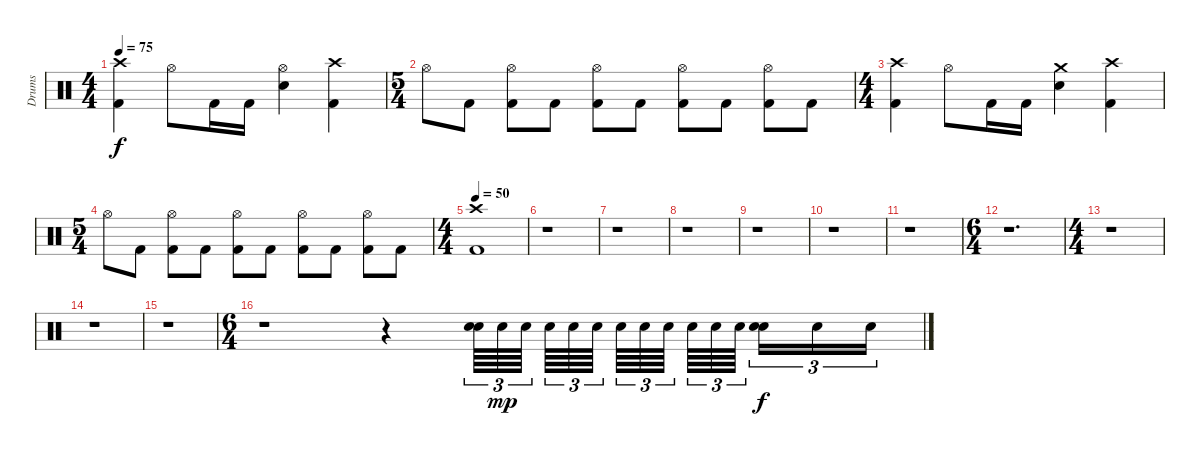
\track ("Drums" "Drums") {instrument percussion}
\staff {score}
\articulation defaults
\ts (4 4)
\tempo 75
\clef neutral
\ks c
("Crash high (hit)" "Kick (hit) 2").4{dy f} "Hi-Hat (open)".8 "Kick (hit) 2".16 "Kick (hit) 2".16 ("Hi-Hat (open)" "Electric Snare (hit)").4 ("Crash high (hit)" "Kick (hit) 2").4 |
\ts (5 4)
"Hi-Hat (open)".8 "Kick (hit) 2".8 ("Hi-Hat (open)" "Kick (hit) 2").8 "Kick (hit) 2".8 ("Hi-Hat (open)" "Kick (hit) 2").8 "Kick (hit) 2".8 ("Hi-Hat (open)" "Kick (hit) 2").8 "Kick (hit) 2".8 ("Hi-Hat (open)" "Kick (hit) 2").8 "Kick (hit) 2".8 |
\ts (4 4)
("Crash high (hit)" "Kick (hit) 2").4 "Hi-Hat (open)".8 "Kick (hit) 2".16 "Kick (hit) 2".16 ("Crash medium (hit)" "Electric Snare (hit)").4 ("Crash high (hit)" "Kick (hit) 2").4 |
\ts (5 4)
"Hi-Hat (open)".8 "Kick (hit) 2".8 ("Hi-Hat (open)" "Kick (hit) 2").8 "Kick (hit) 2".8 ("Hi-Hat (open)" "Kick (hit) 2").8 "Kick (hit) 2".8 ("Hi-Hat (open)" "Kick (hit) 2").8 "Kick (hit) 2".8 ("Hi-Hat (open)" "Kick (hit) 2").8 "Kick (hit) 2".8 |
\ts (4 4)
\tempo 50
("Crash high (hit)" "Kick (hit) 2").1 |
r.1 |
r.1 |
r.1 |
r.1 |
r.1 |
r.1 |
\ts (6 4)
r.1{d} |
\ts (4 4)
r.1 |
r.1 |
r.1 |
\ts (6 4)
r.1{volume 6} r.4 ("Electric Snare (hit)" "Electric Snare (hit)").64{tu (3 2) bu 60} "Electric Snare (hit)".64{tu (3 2) dy mp} "Electric Snare (hit)".64{tu (3 2)} "Electric Snare (hit)".64{tu (3 2)} "Electric Snare (hit)".64{tu (3 2)} "Electric Snare (hit)".64{tu (3 2)} "Electric Snare (hit)".64{tu (3 2)} "Electric Snare (hit)".64{tu (3 2)} "Electric Snare (hit)".64{tu (3 2)} "Electric Snare (hit)".64{tu (3 2)} "Electric Snare (hit)".64{tu (3 2)} "Electric Snare (hit)".64{tu (3 2)} ("Electric Snare (hit)" "Electric Snare (hit)").16{tu (3 2) bu 60 dy f} "Electric Snare (hit)".16{tu (3 2)} "Electric Snare (hit)".16{tu (3 2)}
